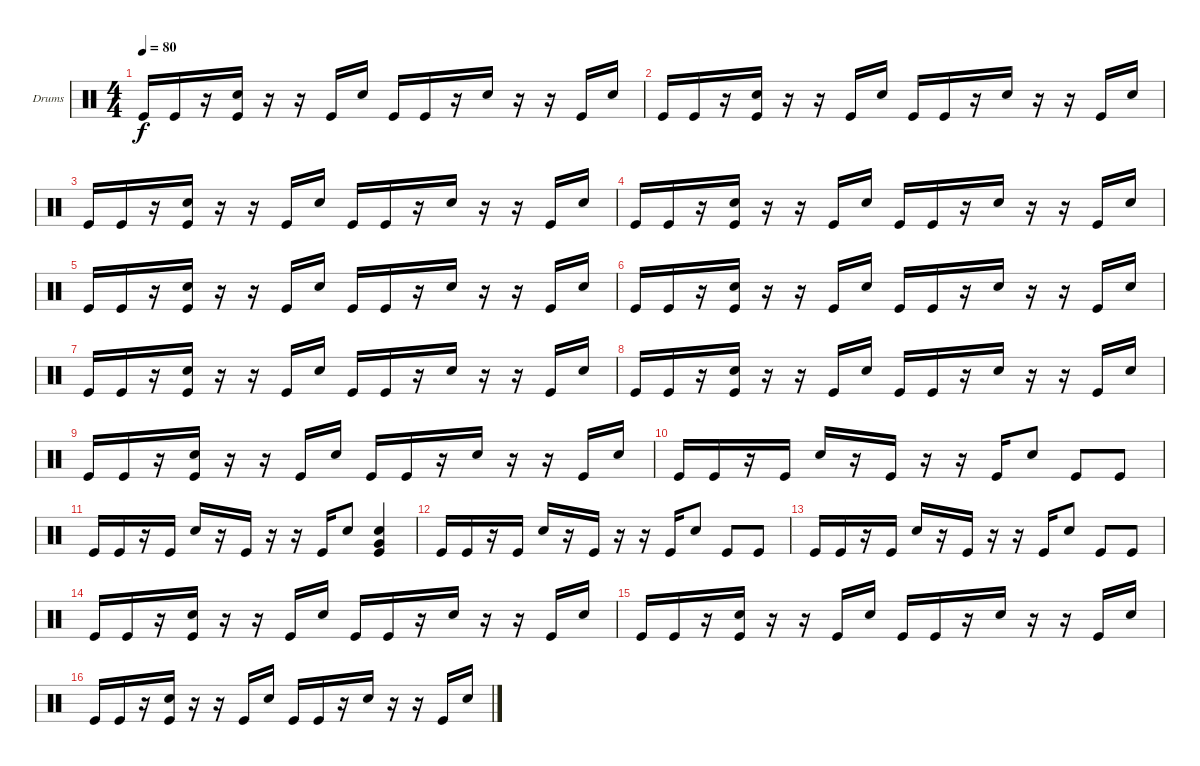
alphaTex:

\bracketExtendMode groupsimilarinstruments
\firstSystemTrackNameOrientation horizontal
\otherSystemsTrackNameOrientation horizontal
\track ("Drumkit" "Drums") {instrument percussion}
\staff {score}
\articulation defaults
\ts (4 4)
\tempo 80
\clef neutral
\scale
0.333333
\ks c "Kick (hit)".16{dy f} "Kick (hit)".16
r.16 ("Kick (hit)" "Snare (hit) 2").16 r.16 r.16 "Kick (hit)".16 "Snare (hit) 2".16 "Kick (hit)".16 "Kick (hit)".16 r.16 "Snare (hit) 2".16 r.16 r.16 "Kick (hit)".16 "Snare (hit) 2".16 |
\scale
0.333333 "Kick (hit)".16 "Kick (hit)".16 r.16 ("Kick (hit)" "Snare (hit) 2").16 r.16 r.16 "Kick (hit)".16 "Snare (hit) 2".16 "Kick (hit)".16 "Kick (hit)".16 r.16 "Snare (hit) 2".16 r.16 r.16 "Kick (hit)".16 "Snare (hit) 2".16 |
\scale
0.333333 "Kick (hit)".16 "Kick (hit)".16 r.16 ("Kick (hit)" "Snare (hit) 2").16 r.16 r.16 "Kick (hit)".16 "Snare (hit) 2".16 "Kick (hit)".16 "Kick (hit)".16 r.16 "Snare (hit) 2".16 r.16 r.16 "Kick (hit)".16 "Snare (hit) 2".16 |
\scale
0.333333 "Kick (hit)".16 "Kick (hit)".16 r.16 ("Kick (hit)" "Snare (hit) 2").16 r.16 r.16 "Kick (hit)".16 "Snare (hit) 2".16 "Kick (hit)".16 "Kick (hit)".16 r.16 "Snare (hit) 2".16 r.16 r.16 "Kick (hit)".16 "Snare (hit) 2".16 |
\scale
0.333333 "Kick (hit)".16 "Kick (hit)".16 r.16 ("Kick (hit)" "Snare (hit) 2").16 r.16 r.16 "Kick (hit)".16 "Snare (hit) 2".16 "Kick (hit)".16 "Kick (hit)".16 r.16 "Snare (hit) 2".16 r.16 r.16 "Kick (hit)".16 "Snare (hit) 2".16 |
\scale
0.333333 "Kick (hit)".16 "Kick (hit)".16 r.16 ("Kick (hit)" "Snare (hit) 2").16 r.16 r.16 "Kick (hit)".16 "Snare (hit) 2".16 "Kick (hit)".16 "Kick (hit)".16 r.16 "Snare (hit) 2".16 r.16 r.16 "Kick (hit)".16 "Snare (hit) 2".16 |
\scale
0.333333 "Kick (hit)".16 "Kick (hit)".16 r.16 ("Kick (hit)" "Snare (hit) 2").16 r.16 r.16 "Kick (hit)".16 "Snare (hit) 2".16 "Kick (hit)".16 "Kick (hit)".16 r.16 "Snare (hit) 2".16 r.16 r.16 "Kick (hit)".16 "Snare (hit) 2".16 |
\scale
0.333333 "Kick (hit)".16 "Kick (hit)".16 r.16 ("Kick (hit)" "Snare (hit) 2").16 r.16 r.16 "Kick (hit)".16 "Snare (hit) 2".16 "Kick (hit)".16 "Kick (hit)".16 r.16 "Snare (hit) 2".16 r.16 r.16 "Kick (hit)".16 "Snare (hit) 2".16 |
\scale
0.333333 "Kick (hit)".16 "Kick (hit)".16 r.16 ("Kick (hit)" "Snare (hit) 2").16 r.16 r.16 "Kick (hit)".16 "Snare (hit) 2".16 "Kick (hit)".16 "Kick (hit)".16 r.16 "Snare (hit) 2".16 r.16 r.16 "Kick (hit)".16 "Snare (hit) 2".16 |
\scale
0.333333 "Kick (hit)".16 "Kick (hit)".16 r.16 "Kick (hit)".16 "Snare (hit) 2".16 r.16 "Kick (hit)".16 r.16 r.16 "Kick (hit)".16 "Snare (hit) 2".8 "Kick (hit)".8 "Kick (hit)".8 |
\scale
0.333333 "Kick (hit)".16 "Kick (hit)".16 r.16 "Kick (hit)".16 "Snare (hit) 2".16 r.16 "Kick (hit)".16 r.16 r.16 "Kick (hit)".16 "Snare (hit) 2".8 ("Kick (hit)" "Snare (hit) 2" "Very Low Tom (hit)").4 |
\scale
0.333333 "Kick (hit)".16 "Kick (hit)".16 r.16 "Kick (hit)".16 "Snare (hit) 2".16 r.16 "Kick (hit)".16 r.16 r.16 "Kick (hit)".16 "Snare (hit) 2".8 "Kick (hit)".8 "Kick (hit)".8 |
\scale
0.333333 "Kick (hit)".16 "Kick (hit)".16 r.16 "Kick (hit)".16 "Snare (hit) 2".16 r.16 "Kick (hit)".16 r.16 r.16 "Kick (hit)".16 "Snare (hit) 2".8 "Kick (hit)".8 "Kick (hit)".8 |
\scale
0.333333 "Kick (hit)".16 "Kick (hit)".16 r.16 ("Kick (hit)" "Snare (hit) 2").16 r.16 r.16 "Kick (hit)".16 "Snare (hit) 2".16 "Kick (hit)".16 "Kick (hit)".16 r.16 "Snare (hit) 2".16 r.16 r.16 "Kick (hit)".16 "Snare (hit) 2".16 |
\scale
0.333333 "Kick (hit)".16 "Kick (hit)".16 r.16 ("Kick (hit)" "Snare (hit) 2").16 r.16 r.16 "Kick (hit)".16 "Snare (hit) 2".16 "Kick (hit)".16 "Kick (hit)".16 r.16 "Snare (hit) 2".16 r.16 r.16 "Kick (hit)".16 "Snare (hit) 2".16 |
\scale
0.333333 "Kick (hit)".16 "Kick (hit)".16 r.16 ("Kick (hit)" "Snare (hit) 2").16 r.16 r.16 "Kick (hit)".16 "Snare (hit) 2".16 "Kick (hit)".16 "Kick (hit)".16 r.16 "Snare (hit) 2".16 r.16 r.16 "Kick (hit)".16 "Snare (hit) 2".16
